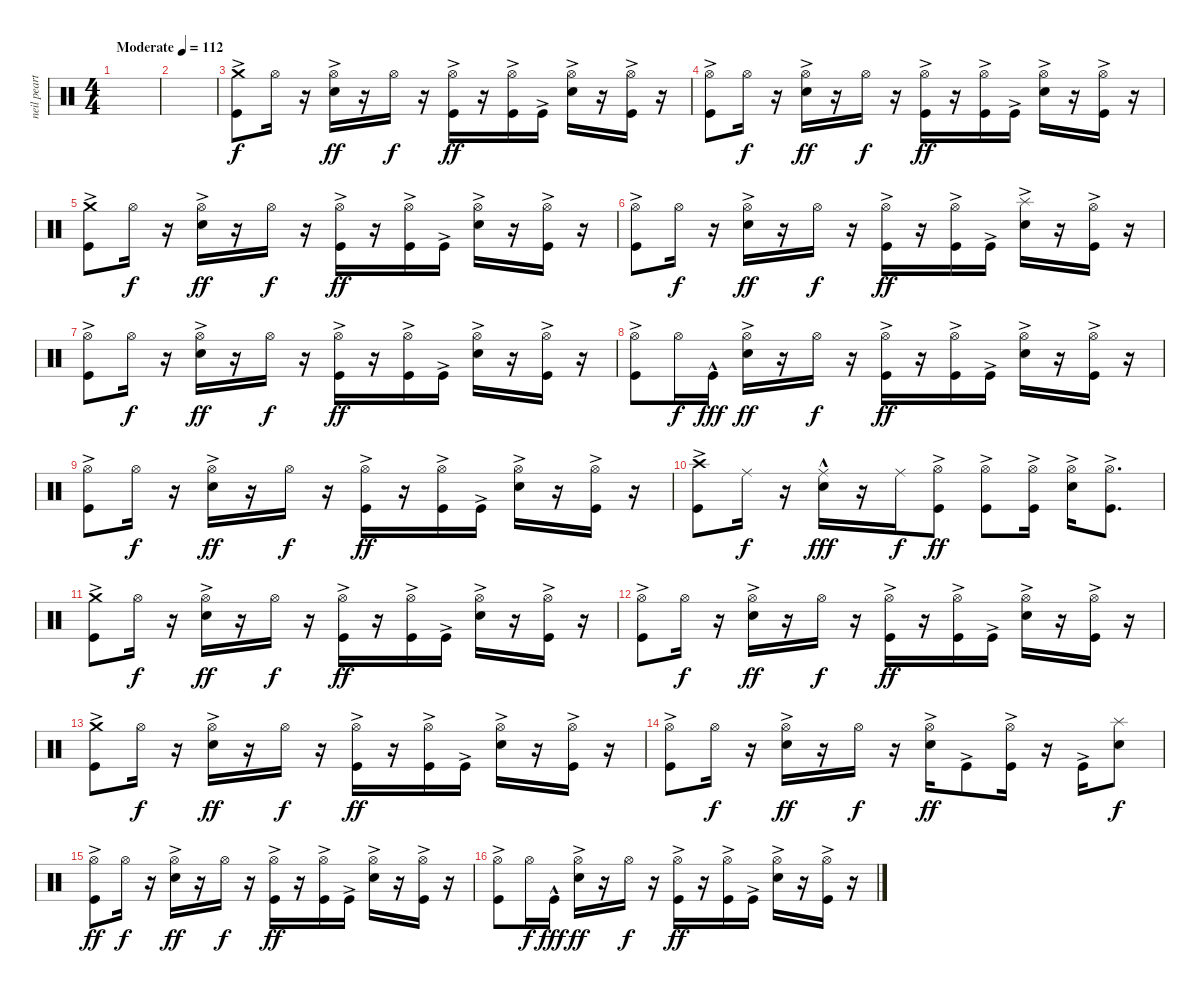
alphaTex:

\track ("neil peart" "neil peart") {instrument percussion}
\staff {score}
\articulation defaults
\ts (4 4)
\tempo (112 "Moderate")
\clef neutral
\ks c
|
|
("Crash medium (hit)" "Kick (hit)"{ac}).8 "Hi-Hat (open)".16{dy f} r.16 ("Hi-Hat (open)" "Electric Snare (hit)"{ac}).16{dy ff} r.16 "Hi-Hat (open)".16{dy f} r.16 ("Hi-Hat (open)" "Kick (hit)"{ac}).16{dy ff} r.16 ("Hi-Hat (open)" "Kick (hit)"{ac}).16 "Kick (hit)"{ac}.16 ("Hi-Hat (open)" "Electric Snare (hit)"{ac}).16 r.16 ("Hi-Hat (open)" "Kick (hit)"{ac}).16 r.16 |
("Hi-Hat (open)" "Kick (hit)"{ac}).8 "Hi-Hat (open)".16{dy f} r.16 ("Hi-Hat (open)" "Electric Snare (hit)"{ac}).16{dy ff} r.16 "Hi-Hat (open)".16{dy f} r.16 ("Hi-Hat (open)" "Kick (hit)"{ac}).16{dy ff} r.16 ("Hi-Hat (open)" "Kick (hit)"{ac}).16 "Kick (hit)"{ac}.16 ("Hi-Hat (open)" "Electric Snare (hit)"{ac}).16 r.16 ("Hi-Hat (open)" "Kick (hit)"{ac}).16 r.16 |
("Crash medium (hit)" "Kick (hit)"{ac}).8 "Hi-Hat (open)".16{dy f} r.16 ("Hi-Hat (open)" "Electric Snare (hit)"{ac}).16{dy ff} r.16 "Hi-Hat (open)".16{dy f} r.16 ("Hi-Hat (open)" "Kick (hit)"{ac}).16{dy ff} r.16 ("Hi-Hat (open)" "Kick (hit)"{ac}).16 "Kick (hit)"{ac}.16 ("Hi-Hat (open)" "Electric Snare (hit)"{ac}).16 r.16 ("Hi-Hat (open)" "Kick (hit)"{ac}).16 r.16 |
("Hi-Hat (open)" "Kick (hit)"{ac}).8 "Hi-Hat (open)".16{dy f} r.16 ("Hi-Hat (open)" "Electric Snare (hit)"{ac}).16{dy ff} r.16 "Hi-Hat (open)".16{dy f} r.16 ("Hi-Hat (open)" "Kick (hit)"{ac}).16{dy ff} r.16 ("Hi-Hat (open)" "Kick (hit)"{ac}).16 "Kick (hit)"{ac}.16 ("Splash (hit)" "Electric Snare (hit)"{ac}).16 r.16 ("Hi-Hat (open)" "Kick (hit)"{ac}).16 r.16 |
("Hi-Hat (open)" "Kick (hit)"{ac}).8 "Hi-Hat (open)".16{dy f} r.16 ("Hi-Hat (open)" "Electric Snare (hit)"{ac}).16{dy ff} r.16 "Hi-Hat (open)".16{dy f} r.16 ("Hi-Hat (open)" "Kick (hit)"{ac}).16{dy ff} r.16 ("Hi-Hat (open)" "Kick (hit)"{ac}).16 "Kick (hit)"{ac}.16 ("Hi-Hat (open)" "Electric Snare (hit)"{ac}).16 r.16 ("Hi-Hat (open)" "Kick (hit)"{ac}).16 r.16 |
("Hi-Hat (open)" "Kick (hit)"{ac}).8 "Hi-Hat (open)".16{dy f} "Kick (hit)"{hac}.16{dy fff} ("Hi-Hat (open)" "Electric Snare (hit)"{ac}).16{dy ff} r.16 "Hi-Hat (open)".16{dy f} r.16 ("Hi-Hat (open)" "Kick (hit)"{ac}).16{dy ff} r.16 ("Hi-Hat (open)" "Kick (hit)"{ac}).16 "Kick (hit)"{ac}.16 ("Hi-Hat (open)" "Electric Snare (hit)"{ac}).16 r.16 ("Hi-Hat (open)" "Kick (hit)"{ac}).16 r.16 |
("Hi-Hat (open)" "Kick (hit)"{ac}).8 "Hi-Hat (open)".16{dy f} r.16 ("Hi-Hat (open)" "Electric Snare (hit)"{ac}).16{dy ff} r.16 "Hi-Hat (open)".16{dy f} r.16 ("Hi-Hat (open)" "Kick (hit)"{ac}).16{dy ff} r.16 ("Hi-Hat (open)" "Kick (hit)"{ac}).16 "Kick (hit)"{ac}.16 ("Hi-Hat (open)" "Electric Snare (hit)"{ac}).16 r.16 ("Hi-Hat (open)" "Kick (hit)"{ac}).16 r.16 |
("Crash high (hit)" "Kick (hit)"{ac}).8 "Ride (middle)".16{dy f} r.16 ("Ride (middle)" "Electric Snare (hit)"{hac}).16{dy fff} r.16 "Ride (middle)".16{dy f} ("Hi-Hat (open)" "Kick (hit)"{ac}).8{dy ff} ("Hi-Hat (open)" "Kick (hit)"{ac}).8 ("Hi-Hat (open)" "Kick (hit)"{ac}).16 ("Hi-Hat (open)" "Electric Snare (hit)"{ac}).16 ("Hi-Hat (open)" "Kick (hit)"{ac}).8{d} |
("Crash medium (hit)" "Kick (hit)"{ac}).8 "Hi-Hat (open)".16{dy f} r.16 ("Hi-Hat (open)" "Electric Snare (hit)"{ac}).16{dy ff} r.16 "Hi-Hat (open)".16{dy f} r.16 ("Hi-Hat (open)" "Kick (hit)"{ac}).16{dy ff} r.16 ("Hi-Hat (open)" "Kick (hit)"{ac}).16 "Kick (hit)"{ac}.16 ("Hi-Hat (open)" "Electric Snare (hit)"{ac}).16 r.16 ("Hi-Hat (open)" "Kick (hit)"{ac}).16 r.16 |
("Hi-Hat (open)" "Kick (hit)"{ac}).8 "Hi-Hat (open)".16{dy f} r.16 ("Hi-Hat (open)" "Electric Snare (hit)"{ac}).16{dy ff} r.16 "Hi-Hat (open)".16{dy f} r.16 ("Hi-Hat (open)" "Kick (hit)"{ac}).16{dy ff} r.16 ("Hi-Hat (open)" "Kick (hit)"{ac}).16 "Kick (hit)"{ac}.16 ("Hi-Hat (open)" "Electric Snare (hit)"{ac}).16 r.16 ("Hi-Hat (open)" "Kick (hit)"{ac}).16 r.16 |
("Crash medium (hit)" "Kick (hit)"{ac}).8 "Hi-Hat (open)".16{dy f} r.16 ("Hi-Hat (open)" "Electric Snare (hit)"{ac}).16{dy ff} r.16 "Hi-Hat (open)".16{dy f} r.16 ("Hi-Hat (open)" "Kick (hit)"{ac}).16{dy ff} r.16 ("Hi-Hat (open)" "Kick (hit)"{ac}).16 "Kick (hit)"{ac}.16 ("Hi-Hat (open)" "Electric Snare (hit)"{ac}).16 r.16 ("Hi-Hat (open)" "Kick (hit)"{ac}).16 r.16 |
("Hi-Hat (open)" "Kick (hit)"{ac}).8 "Hi-Hat (open)".16{dy f} r.16 ("Hi-Hat (open)" "Electric Snare (hit)"{ac}).16{dy ff} r.16 "Hi-Hat (open)".16{dy f} r.16 ("Hi-Hat (open)" "Electric Snare (hit)"{ac}).16{dy ff} "Kick (hit)"{ac}.8 ("Hi-Hat (open)" "Kick (hit)"{ac}).16 r.16 "Kick (hit)"{ac}.16 ("Splash (hit)" "Electric Snare (hit)").8{dy f} |
("Hi-Hat (open)" "Kick (hit)"{ac}).8{dy ff} "Hi-Hat (open)".16{dy f} r.16 ("Hi-Hat (open)" "Electric Snare (hit)"{ac}).16{dy ff} r.16 "Hi-Hat (open)".16{dy f} r.16 ("Hi-Hat (open)" "Kick (hit)"{ac}).16{dy ff} r.16 ("Hi-Hat (open)" "Kick (hit)"{ac}).16 "Kick (hit)"{ac}.16 ("Hi-Hat (open)" "Electric Snare (hit)"{ac}).16 r.16 ("Hi-Hat (open)" "Kick (hit)"{ac}).16 r.16 |
("Hi-Hat (open)" "Kick (hit)"{ac}).8 "Hi-Hat (open)".16{dy f} "Kick (hit)"{hac}.16{dy fff} ("Hi-Hat (open)" "Electric Snare (hit)"{ac}).16{dy ff} r.16 "Hi-Hat (open)".16{dy f} r.16 ("Hi-Hat (open)" "Kick (hit)"{ac}).16{dy ff} r.16 ("Hi-Hat (open)" "Kick (hit)"{ac}).16 "Kick (hit)"{ac}.16 ("Hi-Hat (open)" "Electric Snare (hit)"{ac}).16 r.16 ("Hi-Hat (open)" "Kick (hit)"{ac}).16 r.16
